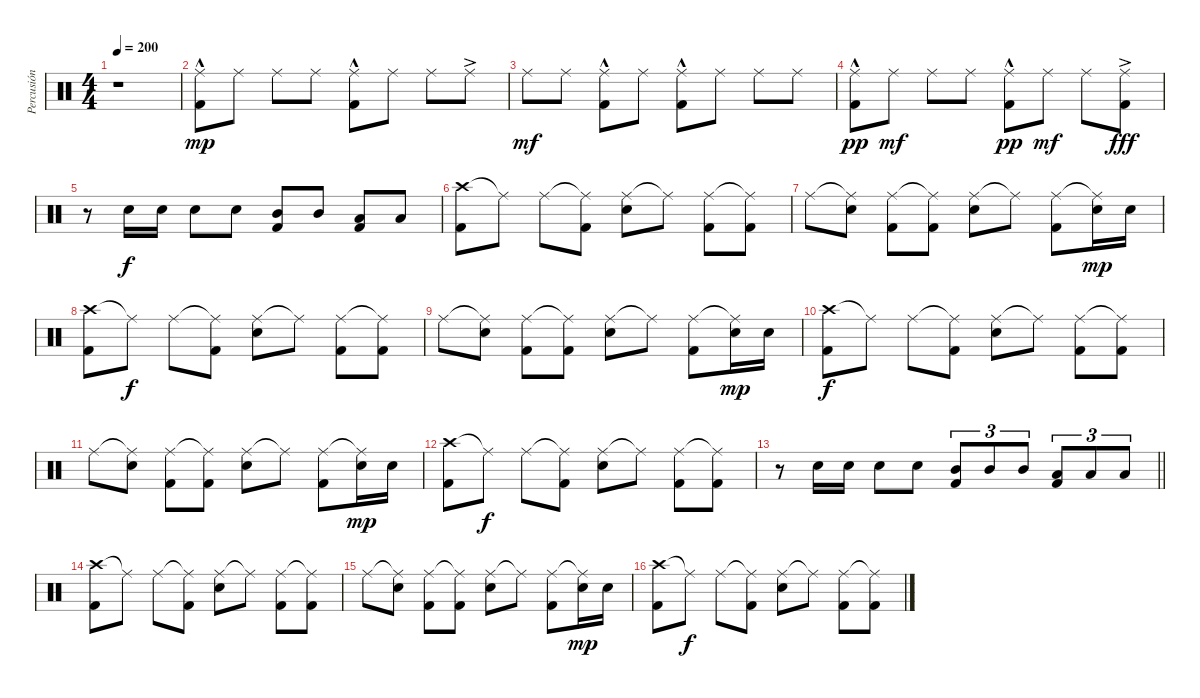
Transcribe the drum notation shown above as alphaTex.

\track ("Percusión" "Percusión") {instrument percussion}
\staff {score}
\articulation defaults
\ts (4 4)
\tempo 200
\clef neutral
\ks c
r.1{dy f} |
("Ride (middle)"{hac} "Kick (hit) 2").8{dy mp} "Ride (middle)".8 "Ride (middle)".8 "Ride (middle)".8 ("Ride (middle)"{hac} "Kick (hit) 2").8 "Ride (middle)".8 "Ride (middle)".8 "Ride (middle)"{ac}.8 |
"Ride (middle)".8{dy mf} "Ride (middle)".8 ("Ride (middle)"{hac} "Kick (hit) 2").8 "Ride (middle)".8 ("Kick (hit) 2" "Ride (middle)"{hac}).8 "Ride (middle)".8 "Ride (middle)".8 "Ride (middle)".8 |
("Ride (middle)"{hac} "Kick (hit) 2").8{dy pp} "Ride (middle)".8{dy mf} "Ride (middle)".8 "Ride (middle)".8 ("Ride (middle)"{hac} "Kick (hit) 2").8{dy pp} "Ride (middle)".8{dy mf} "Ride (middle)".8 ("Ride (middle)"{ac} "Kick (hit) 2").8{dy fff} |
r.8 "Snare (hit) 2".16{dy f} "Snare (hit) 2".16 "Snare (hit) 2".8 "Snare (hit) 2".8 ("Mid Tom (hit)" "Kick (hit) 2").8 "Mid Tom (hit)".8 ("Low Tom (hit)" "Kick (hit) 2").8 "Low Tom (hit)".8 |
("Crash high (hit)" "Kick (hit) 2").8 "Ride (middle)"{t}.8 "Ride (middle)".8 ("Ride (middle)"{t} "Kick (hit) 2").8 ("Ride (middle)" "Snare (hit) 2").8 "Ride (middle)"{t}.8 ("Ride (middle)" "Kick (hit) 2").8 ("Ride (middle)"{t} "Kick (hit) 2").8 |
"Ride (middle)".8 ("Ride (middle)"{t} "Snare (hit) 2").8 ("Ride (middle)" "Kick (hit) 2").8 ("Ride (middle)"{t} "Kick (hit) 2").8 ("Ride (middle)" "Snare (hit) 2").8 "Ride (middle)"{t}.8 ("Ride (middle)" "Kick (hit) 2").8 ("Ride (middle)"{t} "Snare (hit) 2").16{dy mp} "Snare (hit) 2".16 |
("Crash high (hit)" "Kick (hit) 2").8 "Ride (middle)"{t}.8{dy f} "Ride (middle)".8 ("Ride (middle)"{t} "Kick (hit) 2").8 ("Ride (middle)" "Snare (hit) 2").8 "Ride (middle)"{t}.8 ("Ride (middle)" "Kick (hit) 2").8 ("Ride (middle)"{t} "Kick (hit) 2").8 |
"Ride (middle)".8 ("Ride (middle)"{t} "Snare (hit) 2").8 ("Ride (middle)" "Kick (hit) 2").8 ("Ride (middle)"{t} "Kick (hit) 2").8 ("Ride (middle)" "Snare (hit) 2").8 "Ride (middle)"{t}.8 ("Ride (middle)" "Kick (hit) 2").8 ("Ride (middle)"{t} "Snare (hit) 2").16{dy mp} "Snare (hit) 2".16 |
("Crash high (hit)" "Kick (hit) 2").8{dy f} "Ride (middle)"{t}.8 "Ride (middle)".8 ("Ride (middle)"{t} "Kick (hit) 2").8 ("Ride (middle)" "Snare (hit) 2").8 "Ride (middle)"{t}.8 ("Ride (middle)" "Kick (hit) 2").8 ("Ride (middle)"{t} "Kick (hit) 2").8 |
"Ride (middle)".8 ("Ride (middle)"{t} "Snare (hit) 2").8 ("Ride (middle)" "Kick (hit) 2").8 ("Ride (middle)"{t} "Kick (hit) 2").8 ("Ride (middle)" "Snare (hit) 2").8 "Ride (middle)"{t}.8 ("Ride (middle)" "Kick (hit) 2").8 ("Ride (middle)"{t} "Snare (hit) 2").16{dy mp} "Snare (hit) 2".16 |
("Crash high (hit)" "Kick (hit) 2").8 "Ride (middle)"{t}.8{dy f} "Ride (middle)".8 ("Ride (middle)"{t} "Kick (hit) 2").8 ("Ride (middle)" "Snare (hit) 2").8 "Ride (middle)"{t}.8 ("Ride (middle)" "Kick (hit) 2").8 ("Ride (middle)"{t} "Kick (hit) 2").8 |
\barLineRight lightlight
r.8 "Snare (hit) 2".16 "Snare (hit) 2".16 "Snare (hit) 2".8 "Snare (hit) 2".8 ("Mid Tom (hit)" "Kick (hit) 2").8{tu (3 2)} "Mid Tom (hit)".8{tu (3 2)} "Mid Tom (hit)".8{tu (3 2)} ("Low Tom (hit)" "Kick (hit) 2").8{tu (3 2)} "Low Tom (hit)".8{tu (3 2)} "Low Tom (hit)".8{tu (3 2)} |
("Crash high (hit)" "Kick (hit) 2").8 "Ride (middle)"{t}.8 "Ride (middle)".8 ("Ride (middle)"{t} "Kick (hit) 2").8 ("Ride (middle)" "Snare (hit) 2").8 "Ride (middle)"{t}.8 ("Ride (middle)" "Kick (hit) 2").8 ("Ride (middle)"{t} "Kick (hit) 2").8 |
"Ride (middle)".8 ("Ride (middle)"{t} "Snare (hit) 2").8 ("Ride (middle)" "Kick (hit) 2").8 ("Ride (middle)"{t} "Kick (hit) 2").8 ("Ride (middle)" "Snare (hit) 2").8 "Ride (middle)"{t}.8 ("Ride (middle)" "Kick (hit) 2").8 ("Ride (middle)"{t} "Snare (hit) 2").16{dy mp} "Snare (hit) 2".16 |
("Crash high (hit)" "Kick (hit) 2").8 "Ride (middle)"{t}.8{dy f} "Ride (middle)".8 ("Ride (middle)"{t} "Kick (hit) 2").8 ("Ride (middle)" "Snare (hit) 2").8 "Ride (middle)"{t}.8 ("Ride (middle)" "Kick (hit) 2").8 ("Ride (middle)"{t} "Kick (hit) 2").8
